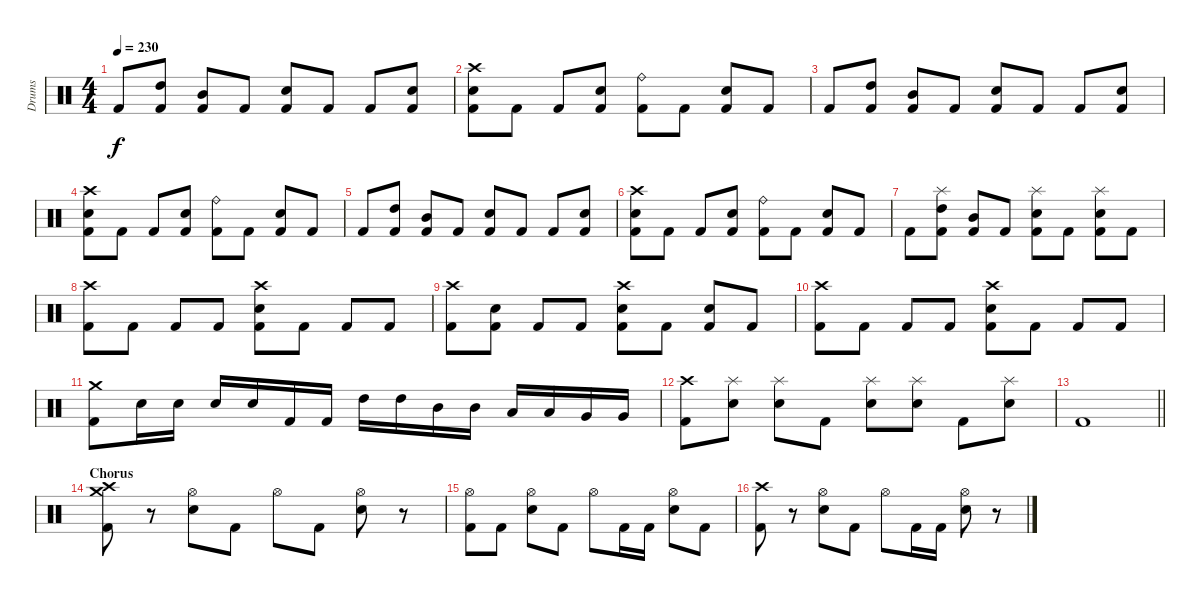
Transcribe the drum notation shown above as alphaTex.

\track ("Drums" "Drums") {instrument percussion}
\staff {score}
\articulation defaults
\ts (4 4)
\tempo 230
\clef neutral
\ks c "Kick (hit) 2".8{dy f}
("High Tom (hit)" "Kick (hit) 2").8 ("Mid Tom (hit)" "Kick (hit) 2").8 "Kick (hit) 2".8 ("Electric Snare (hit)" "Kick (hit) 2").8 "Kick (hit) 2".8 "Kick (hit) 2".8 ("Electric Snare (hit)" "Kick (hit) 2").8 |
("Crash high (hit)" "Electric Snare (hit)" "Kick (hit) 2").8 "Kick (hit) 2".8 "Kick (hit) 2".8 ("Electric Snare (hit)" "Kick (hit) 2").8 ("Ride (bell)" "Kick (hit) 2").8 "Kick (hit) 2".8 ("Electric Snare (hit)" "Kick (hit) 2").8 "Kick (hit) 2".8 |
"Kick (hit) 2".8 ("High Tom (hit)" "Kick (hit) 2").8 ("Mid Tom (hit)" "Kick (hit) 2").8 "Kick (hit) 2".8 ("Electric Snare (hit)" "Kick (hit) 2").8 "Kick (hit) 2".8 "Kick (hit) 2".8 ("Electric Snare (hit)" "Kick (hit) 2").8 |
("Crash high (hit)" "Electric Snare (hit)" "Kick (hit) 2").8 "Kick (hit) 2".8 "Kick (hit) 2".8 ("Electric Snare (hit)" "Kick (hit) 2").8 ("Ride (bell)" "Kick (hit) 2").8 "Kick (hit) 2".8 ("Electric Snare (hit)" "Kick (hit) 2").8 "Kick (hit) 2".8 |
"Kick (hit) 2".8 ("High Tom (hit)" "Kick (hit) 2").8 ("Mid Tom (hit)" "Kick (hit) 2").8 "Kick (hit) 2".8 ("Electric Snare (hit)" "Kick (hit) 2").8 "Kick (hit) 2".8 "Kick (hit) 2".8 ("Electric Snare (hit)" "Kick (hit) 2").8 |
("Crash high (hit)" "Electric Snare (hit)" "Kick (hit) 2").8 "Kick (hit) 2".8 "Kick (hit) 2".8 ("Electric Snare (hit)" "Kick (hit) 2").8 ("Ride (bell)" "Kick (hit) 2").8 "Kick (hit) 2".8 ("Electric Snare (hit)" "Kick (hit) 2").8 "Kick (hit) 2".8 |
"Kick (hit) 2".8 ("Splash (hit)" "High Tom (hit)" "Kick (hit) 2").8 ("Mid Tom (hit)" "Kick (hit) 2").8 "Kick (hit) 2".8 ("Splash (hit)" "Electric Snare (hit)" "Kick (hit) 2").8 "Kick (hit) 2".8 ("Splash (hit)" "Electric Snare (hit)" "Kick (hit) 2").8 "Kick (hit) 2".8 |
("Crash high (hit)" "Kick (hit) 2").8 "Kick (hit) 2".8 "Kick (hit) 2".8 "Kick (hit) 2".8 ("Crash high (hit)" "Electric Snare (hit)" "Kick (hit) 2").8 "Kick (hit) 2".8 "Kick (hit) 2".8 "Kick (hit) 2".8 |
("Crash high (hit)" "Kick (hit) 2").8 ("Electric Snare (hit)" "Kick (hit) 2").8 "Kick (hit) 2".8 "Kick (hit) 2".8 ("Crash high (hit)" "Electric Snare (hit)" "Kick (hit) 2").8 "Kick (hit) 2".8 ("Electric Snare (hit)" "Kick (hit) 2").8 "Kick (hit) 2".8 |
("Crash high (hit)" "Kick (hit) 2").8 "Kick (hit) 2".8 "Kick (hit) 2".8 "Kick (hit) 2".8 ("Crash high (hit)" "Electric Snare (hit)" "Kick (hit) 2").8 "Kick (hit) 2".8 "Kick (hit) 2".8 "Kick (hit) 2".8 |
("Crash medium (hit)" "Kick (hit) 2").8 "Electric Snare (hit)".16 "Electric Snare (hit)".16 "Electric Snare (hit)".16 "Electric Snare (hit)".16 "Kick (hit) 2".16 "Kick (hit) 2".16 "High Tom (hit)".16 "High Tom (hit)".16 "Mid Tom (hit)".16 "Mid Tom (hit)".16 "Low Tom (hit)".16 "Low Tom (hit)".16 "Very Low Tom (hit)".16 "Very Low Tom (hit)".16 |
("Crash high (hit)" "Kick (hit) 2").8 ("Splash (hit)" "Electric Snare (hit)").8 ("Splash (hit)" "Electric Snare (hit)").8 "Kick (hit) 2".8 ("Splash (hit)" "Electric Snare (hit)").8 ("Splash (hit)" "Electric Snare (hit)").8 "Kick (hit) 2".8 ("Splash (hit)" "Electric Snare (hit)").8 |
\barLineRight lightlight "Kick (hit) 2".1
|
\section ("" "Chorus")
("Crash high (hit)" "Crash medium (hit)" "Kick (hit) 2").8 r.8 ("Hi-Hat (open)" "Electric Snare (hit)").8 "Kick (hit) 2".8 "Hi-Hat (open)".8 "Kick (hit) 2".8 ("Hi-Hat (open)" "Electric Snare (hit)").8 r.8 |
("Hi-Hat (open)" "Kick (hit) 2").8 "Kick (hit) 2".8 ("Hi-Hat (open)" "Electric Snare (hit)").8 "Kick (hit) 2".8 "Hi-Hat (open)".8 "Kick (hit) 2".16 "Kick (hit) 2".16 ("Hi-Hat (open)" "Electric Snare (hit)").8 "Kick (hit) 2".8 |
("Crash high (hit)" "Kick (hit) 2").8 r.8 ("Hi-Hat (open)" "Electric Snare (hit)").8 "Kick (hit) 2".8 "Hi-Hat (open)".8 "Kick (hit) 2".16 "Kick (hit) 2".16 ("Hi-Hat (open)" "Electric Snare (hit)").8 r.8
